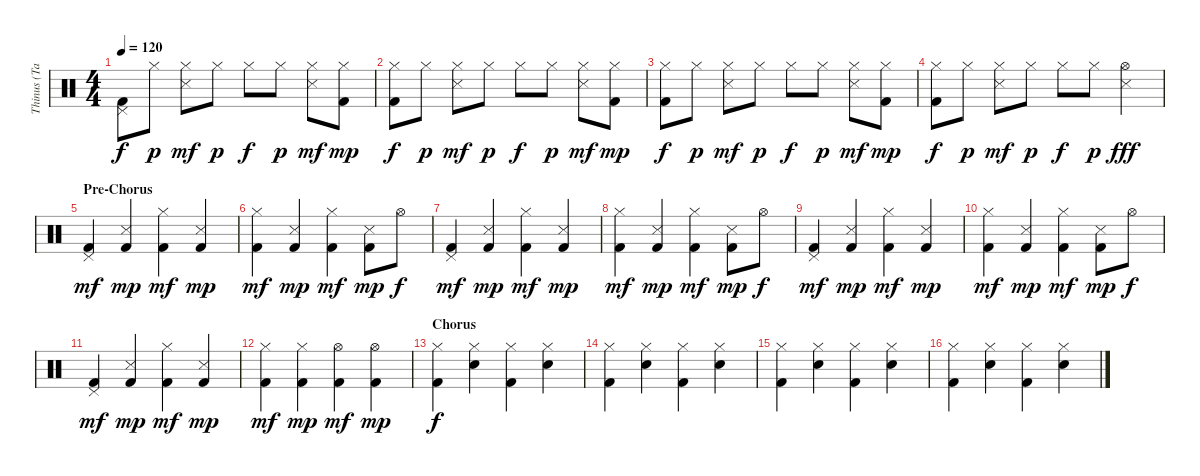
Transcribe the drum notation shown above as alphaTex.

\track ("Thinus (Tain) Odendaal - Drums" "Thinus (Ta") {instrument percussion}
\staff {score}
\articulation defaults
\ts (4 4)
\tempo 120
\clef neutral
\ks c
("Pedal Hi-Hat (hit)" "Kick (hit) 2").8{dy f} "Hi-Hat (closed)".8{dy p} ("Hi-Hat (closed)" "Snare (side stick) 3").8{dy mf} "Hi-Hat (closed)".8{dy p} "Hi-Hat (closed)".8{dy f} "Hi-Hat (closed)".8{dy p} ("Hi-Hat (closed)" "Snare (side stick) 3").8{dy mf} ("Hi-Hat (closed)" "Kick (hit) 2").8{dy mp} |
("Hi-Hat (closed)" "Kick (hit) 2").8{dy f} "Hi-Hat (closed)".8{dy p} ("Hi-Hat (closed)" "Snare (side stick) 3").8{dy mf} "Hi-Hat (closed)".8{dy p} "Hi-Hat (closed)".8{dy f} "Hi-Hat (closed)".8{dy p} ("Hi-Hat (closed)" "Snare (side stick) 3").8{dy mf} ("Hi-Hat (closed)" "Kick (hit) 2").8{dy mp} |
("Hi-Hat (closed)" "Kick (hit) 2").8{dy f} "Hi-Hat (closed)".8{dy p} ("Hi-Hat (closed)" "Snare (side stick) 3").8{dy mf} "Hi-Hat (closed)".8{dy p} "Hi-Hat (closed)".8{dy f} "Hi-Hat (closed)".8{dy p} ("Hi-Hat (closed)" "Snare (side stick) 3").8{dy mf} ("Hi-Hat (closed)" "Kick (hit) 2").8{dy mp} |
("Hi-Hat (closed)" "Kick (hit) 2").8{dy f} "Hi-Hat (closed)".8{dy p} ("Hi-Hat (closed)" "Snare (side stick) 3").8{dy mf} "Hi-Hat (closed)".8{dy p} "Hi-Hat (closed)".8{dy f} "Hi-Hat (closed)".8{dy p} ("Hi-Hat (open)" "Snare (side stick) 3").4{dy fff} |
\section ("" "Pre-Chorus")
("Pedal Hi-Hat (hit)" "Kick (hit) 2").4{dy mf} ("Snare (side stick) 3" "Kick (hit) 2").4{dy mp} ("Hi-Hat (closed)" "Kick (hit) 2").4{dy mf} ("Snare (side stick) 3" "Kick (hit) 2").4{dy mp} |
("Hi-Hat (closed)" "Kick (hit) 2").4{dy mf} ("Snare (side stick) 3" "Kick (hit) 2").4{dy mp} ("Hi-Hat (closed)" "Kick (hit) 2").4{dy mf} ("Snare (side stick) 3" "Kick (hit) 2").8{dy mp} "Hi-Hat (open)".8{dy f} |
("Pedal Hi-Hat (hit)" "Kick (hit) 2").4{dy mf} ("Snare (side stick) 3" "Kick (hit) 2").4{dy mp} ("Hi-Hat (closed)" "Kick (hit) 2").4{dy mf} ("Snare (side stick) 3" "Kick (hit) 2").4{dy mp} |
("Hi-Hat (closed)" "Kick (hit) 2").4{dy mf} ("Snare (side stick) 3" "Kick (hit) 2").4{dy mp} ("Hi-Hat (closed)" "Kick (hit) 2").4{dy mf} ("Snare (side stick) 3" "Kick (hit) 2").8{dy mp} "Hi-Hat (open)".8{dy f} |
("Pedal Hi-Hat (hit)" "Kick (hit) 2").4{dy mf} ("Snare (side stick) 3" "Kick (hit) 2").4{dy mp} ("Hi-Hat (closed)" "Kick (hit) 2").4{dy mf} ("Snare (side stick) 3" "Kick (hit) 2").4{dy mp} |
("Hi-Hat (closed)" "Kick (hit) 2").4{dy mf} ("Snare (side stick) 3" "Kick (hit) 2").4{dy mp} ("Hi-Hat (closed)" "Kick (hit) 2").4{dy mf} ("Snare (side stick) 3" "Kick (hit) 2").8{dy mp} "Hi-Hat (open)".8{dy f} |
("Pedal Hi-Hat (hit)" "Kick (hit) 2").4{dy mf} ("Snare (side stick) 3" "Kick (hit) 2").4{dy mp} ("Hi-Hat (closed)" "Kick (hit) 2").4{dy mf} ("Snare (side stick) 3" "Kick (hit) 2").4{dy mp} |
("Hi-Hat (closed)" "Kick (hit) 2").4{dy mf} ("Hi-Hat (closed)" "Kick (hit) 2").4{dy mp} ("Hi-Hat (open)" "Kick (hit) 2").4{dy mf} ("Hi-Hat (open)" "Kick (hit) 2").4{dy mp} |
\section ("" "Chorus")
("Hi-Hat (closed)" "Kick (hit) 2").4{dy f} ("Hi-Hat (closed)" "Snare (hit) 2").4 ("Hi-Hat (closed)" "Kick (hit) 2").4 ("Hi-Hat (closed)" "Snare (hit) 2").4 |
("Hi-Hat (closed)" "Kick (hit) 2").4 ("Hi-Hat (closed)" "Snare (hit) 2").4 ("Hi-Hat (closed)" "Kick (hit) 2").4 ("Hi-Hat (closed)" "Snare (hit) 2").4 |
("Hi-Hat (closed)" "Kick (hit) 2").4 ("Hi-Hat (closed)" "Snare (hit) 2").4 ("Hi-Hat (closed)" "Kick (hit) 2").4 ("Hi-Hat (closed)" "Snare (hit) 2").4 |
("Hi-Hat (closed)" "Kick (hit) 2").4 ("Hi-Hat (closed)" "Snare (hit) 2").4 ("Hi-Hat (closed)" "Kick (hit) 2").4 ("Hi-Hat (closed)" "Snare (hit) 2").4
